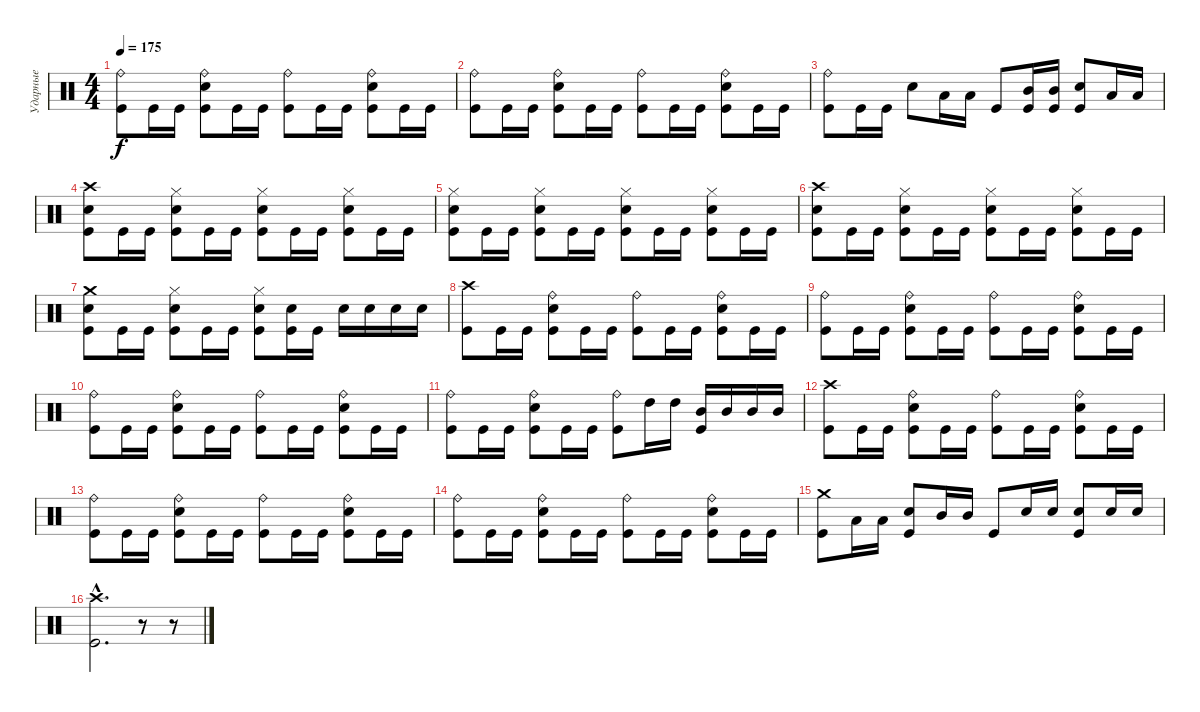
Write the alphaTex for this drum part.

\track ("Ударные" "Ударные") {instrument percussion}
\staff {score}
\articulation defaults
\ts (4 4)
\tempo 175
\clef neutral
\ks c
("Ride (bell)" "Kick (hit)").8{dy f} "Kick (hit)".16 "Kick (hit)".16 ("Ride (bell)" "Electric Snare (hit)" "Kick (hit)").8 "Kick (hit)".16 "Kick (hit)".16 ("Ride (bell)" "Kick (hit)").8 "Kick (hit)".16 "Kick (hit)".16 ("Ride (bell)" "Electric Snare (hit)" "Kick (hit)").8 "Kick (hit)".16 "Kick (hit)".16 |
("Ride (bell)" "Kick (hit)").8 "Kick (hit)".16 "Kick (hit)".16 ("Ride (bell)" "Electric Snare (hit)" "Kick (hit)").8 "Kick (hit)".16 "Kick (hit)".16 ("Ride (bell)" "Kick (hit)").8 "Kick (hit)".16 "Kick (hit)".16 ("Ride (bell)" "Electric Snare (hit)" "Kick (hit)").8 "Kick (hit)".16 "Kick (hit)".16 |
("Ride (bell)" "Kick (hit)").8 "Kick (hit)".16 "Kick (hit)".16 "Electric Snare (hit)".8 "Low Tom (hit)".16 "Low Tom (hit)".16 "Kick (hit)".8 ("Mid Tom (hit)" "Kick (hit)").16 ("Mid Tom (hit)" "Kick (hit)").16 ("Electric Snare (hit)" "Kick (hit)").8 "Low Tom (hit)".16 "Low Tom (hit)".16 |
("Crash high (hit)" "Electric Snare (hit)" "Kick (hit)").8 "Kick (hit)".16 "Kick (hit)".16 ("Hi-Hat (closed)" "Electric Snare (hit)" "Kick (hit)").8 "Kick (hit)".16 "Kick (hit)".16 ("Hi-Hat (closed)" "Electric Snare (hit)" "Kick (hit)").8 "Kick (hit)".16 "Kick (hit)".16 ("Hi-Hat (closed)" "Electric Snare (hit)" "Kick (hit)").8 "Kick (hit)".16 "Kick (hit)".16 |
("Hi-Hat (closed)" "Electric Snare (hit)" "Kick (hit)").8 "Kick (hit)".16 "Kick (hit)".16 ("Hi-Hat (closed)" "Electric Snare (hit)" "Kick (hit)").8 "Kick (hit)".16 "Kick (hit)".16 ("Hi-Hat (closed)" "Electric Snare (hit)" "Kick (hit)").8 "Kick (hit)".16 "Kick (hit)".16 ("Hi-Hat (closed)" "Electric Snare (hit)" "Kick (hit)").8 "Kick (hit)".16 "Kick (hit)".16 |
("Crash high (hit)" "Electric Snare (hit)" "Kick (hit)").8 "Kick (hit)".16 "Kick (hit)".16 ("Hi-Hat (closed)" "Electric Snare (hit)" "Kick (hit)").8 "Kick (hit)".16 "Kick (hit)".16 ("Hi-Hat (closed)" "Electric Snare (hit)" "Kick (hit)").8 "Kick (hit)".16 "Kick (hit)".16 ("Hi-Hat (closed)" "Electric Snare (hit)" "Kick (hit)").8 "Kick (hit)".16 "Kick (hit)".16 |
("Crash medium (hit)" "Electric Snare (hit)" "Kick (hit)").8 "Kick (hit)".16 "Kick (hit)".16 ("Hi-Hat (closed)" "Electric Snare (hit)" "Kick (hit)").8 "Kick (hit)".16 "Kick (hit)".16 ("Hi-Hat (closed)" "Electric Snare (hit)" "Kick (hit)").8 ("Electric Snare (hit)" "Kick (hit)").16 "Kick (hit)".16 "Electric Snare (hit)".16 "Electric Snare (hit)".16 "Electric Snare (hit)".16 "Electric Snare (hit)".16 |
("Crash high (hit)" "Kick (hit)").8 "Kick (hit)".16 "Kick (hit)".16 ("Ride (bell)" "Electric Snare (hit)" "Kick (hit)").8 "Kick (hit)".16 "Kick (hit)".16 ("Ride (bell)" "Kick (hit)").8 "Kick (hit)".16 "Kick (hit)".16 ("Ride (bell)" "Electric Snare (hit)" "Kick (hit)").8 "Kick (hit)".16 "Kick (hit)".16 |
("Ride (bell)" "Kick (hit)").8 "Kick (hit)".16 "Kick (hit)".16 ("Ride (bell)" "Electric Snare (hit)" "Kick (hit)").8 "Kick (hit)".16 "Kick (hit)".16 ("Ride (bell)" "Kick (hit)").8 "Kick (hit)".16 "Kick (hit)".16 ("Ride (bell)" "Electric Snare (hit)" "Kick (hit)").8 "Kick (hit)".16 "Kick (hit)".16 |
("Ride (bell)" "Kick (hit)").8 "Kick (hit)".16 "Kick (hit)".16 ("Ride (bell)" "Electric Snare (hit)" "Kick (hit)").8 "Kick (hit)".16 "Kick (hit)".16 ("Ride (bell)" "Kick (hit)").8 "Kick (hit)".16 "Kick (hit)".16 ("Ride (bell)" "Electric Snare (hit)" "Kick (hit)").8 "Kick (hit)".16 "Kick (hit)".16 |
("Ride (bell)" "Kick (hit)").8 "Kick (hit)".16 "Kick (hit)".16 ("Ride (bell)" "Electric Snare (hit)" "Kick (hit)").8 "Kick (hit)".16 "Kick (hit)".16 ("Ride (bell)" "Kick (hit)").8 "High Tom (hit)".16 "High Tom (hit)".16 ("Mid Tom (hit)" "Kick (hit)").16 "Mid Tom (hit)".16 "Mid Tom (hit)".16 "Mid Tom (hit)".16 |
("Crash high (hit)" "Kick (hit)").8 "Kick (hit)".16 "Kick (hit)".16 ("Ride (bell)" "Electric Snare (hit)" "Kick (hit)").8 "Kick (hit)".16 "Kick (hit)".16 ("Ride (bell)" "Kick (hit)").8 "Kick (hit)".16 "Kick (hit)".16 ("Ride (bell)" "Electric Snare (hit)" "Kick (hit)").8 "Kick (hit)".16 "Kick (hit)".16 |
("Ride (bell)" "Kick (hit)").8 "Kick (hit)".16 "Kick (hit)".16 ("Ride (bell)" "Electric Snare (hit)" "Kick (hit)").8 "Kick (hit)".16 "Kick (hit)".16 ("Ride (bell)" "Kick (hit)").8 "Kick (hit)".16 "Kick (hit)".16 ("Ride (bell)" "Electric Snare (hit)" "Kick (hit)").8 "Kick (hit)".16 "Kick (hit)".16 |
("Ride (bell)" "Kick (hit)").8 "Kick (hit)".16 "Kick (hit)".16 ("Ride (bell)" "Electric Snare (hit)" "Kick (hit)").8 "Kick (hit)".16 "Kick (hit)".16 ("Ride (bell)" "Kick (hit)").8 "Kick (hit)".16 "Kick (hit)".16 ("Ride (bell)" "Electric Snare (hit)" "Kick (hit)").8 "Kick (hit)".16 "Kick (hit)".16 |
("Crash medium (hit)" "Kick (hit)").8 "Low Tom (hit)".16 "Low Tom (hit)".16 ("Electric Snare (hit)" "Kick (hit)").8 "Mid Tom (hit)".16 "Mid Tom (hit)".16 "Kick (hit)".8 "Electric Snare (hit)".16 "Electric Snare (hit)".16 ("Electric Snare (hit)" "Kick (hit)").8 "Electric Snare (hit)".16 "Electric Snare (hit)".16 |
("Crash high (hit)"{hac} "Kick (hit)"{hac}).2{d} r.8 r.8
